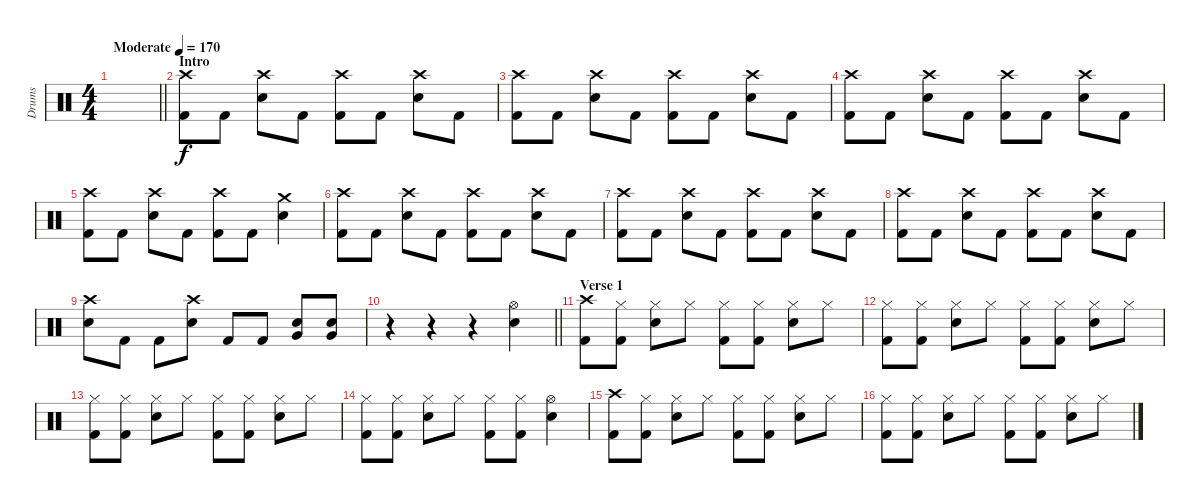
\track ("Drums" "Drums") {instrument percussion}
\staff {score}
\articulation defaults
\ts (4 4)
\tempo (170 "Moderate")
\clef neutral
\barLineRight lightlight
\ks c
|
\section ("" "Intro")
("Crash high (hit)" "Kick (hit) 2").8 "Kick (hit) 2".8 ("Crash high (hit)" "Snare (hit) 2").8 "Kick (hit) 2".8 ("Crash high (hit)" "Kick (hit) 2").8 "Kick (hit) 2".8 ("Crash high (hit)" "Snare (hit) 2").8 "Kick (hit) 2".8 |
("Crash high (hit)" "Kick (hit) 2").8 "Kick (hit) 2".8 ("Crash high (hit)" "Snare (hit) 2").8 "Kick (hit) 2".8 ("Crash high (hit)" "Kick (hit) 2").8 "Kick (hit) 2".8 ("Crash high (hit)" "Snare (hit) 2").8 "Kick (hit) 2".8 |
("Crash high (hit)" "Kick (hit) 2").8 "Kick (hit) 2".8 ("Crash high (hit)" "Snare (hit) 2").8 "Kick (hit) 2".8 ("Crash high (hit)" "Kick (hit) 2").8 "Kick (hit) 2".8 ("Crash high (hit)" "Snare (hit) 2").8 "Kick (hit) 2".8 |
("Crash high (hit)" "Kick (hit) 2").8 "Kick (hit) 2".8 ("Crash high (hit)" "Snare (hit) 2").8 "Kick (hit) 2".8 ("Crash high (hit)" "Kick (hit) 2").8 "Kick (hit) 2".8 ("Crash medium (hit)" "Snare (hit) 2").4 |
("Crash high (hit)" "Kick (hit) 2").8 "Kick (hit) 2".8 ("Crash high (hit)" "Snare (hit) 2").8 "Kick (hit) 2".8 ("Crash high (hit)" "Kick (hit) 2").8 "Kick (hit) 2".8 ("Crash high (hit)" "Snare (hit) 2").8 "Kick (hit) 2".8 |
("Crash high (hit)" "Kick (hit) 2").8 "Kick (hit) 2".8 ("Crash high (hit)" "Snare (hit) 2").8 "Kick (hit) 2".8 ("Crash high (hit)" "Kick (hit) 2").8 "Kick (hit) 2".8 ("Crash high (hit)" "Snare (hit) 2").8 "Kick (hit) 2".8 |
("Crash high (hit)" "Kick (hit) 2").8 "Kick (hit) 2".8 ("Crash high (hit)" "Snare (hit) 2").8 "Kick (hit) 2".8 ("Crash high (hit)" "Kick (hit) 2").8 "Kick (hit) 2".8 ("Crash high (hit)" "Snare (hit) 2").8 "Kick (hit) 2".8 |
("Crash high (hit)" "Snare (hit) 2").8 "Kick (hit) 2".8 "Kick (hit) 2".8 ("Crash high (hit)" "Snare (hit) 2").8 "Kick (hit) 2".8 "Kick (hit) 2".8 ("Snare (hit) 2" "Very Low Tom (hit)").8 ("Snare (hit) 2" "Very Low Tom (hit)").8 |
\barLineRight lightlight
r.4 r.4 r.4 ("Hi-Hat (open)" "Snare (hit) 2").4 |
\section ("" "Verse 1")
("Crash high (hit)" "Kick (hit) 2").8 ("Hi-Hat (closed)" "Kick (hit) 2").8 ("Hi-Hat (closed)" "Snare (hit) 2").8 "Hi-Hat (closed)".8 ("Hi-Hat (closed)" "Kick (hit) 2").8 ("Hi-Hat (closed)" "Kick (hit) 2").8 ("Hi-Hat (closed)" "Snare (hit) 2").8 "Hi-Hat (closed)".8 |
("Hi-Hat (closed)" "Kick (hit) 2").8 ("Hi-Hat (closed)" "Kick (hit) 2").8 ("Hi-Hat (closed)" "Snare (hit) 2").8 "Hi-Hat (closed)".8 ("Hi-Hat (closed)" "Kick (hit) 2").8 ("Hi-Hat (closed)" "Kick (hit) 2").8 ("Hi-Hat (closed)" "Snare (hit) 2").8 "Hi-Hat (closed)".8 |
("Hi-Hat (closed)" "Kick (hit) 2").8 ("Hi-Hat (closed)" "Kick (hit) 2").8 ("Hi-Hat (closed)" "Snare (hit) 2").8 "Hi-Hat (closed)".8 ("Hi-Hat (closed)" "Kick (hit) 2").8 ("Hi-Hat (closed)" "Kick (hit) 2").8 ("Hi-Hat (closed)" "Snare (hit) 2").8 "Hi-Hat (closed)".8 |
("Hi-Hat (closed)" "Kick (hit) 2").8 ("Hi-Hat (closed)" "Kick (hit) 2").8 ("Hi-Hat (closed)" "Snare (hit) 2").8 "Hi-Hat (closed)".8 ("Hi-Hat (closed)" "Kick (hit) 2").8 ("Hi-Hat (closed)" "Kick (hit) 2").8 ("Hi-Hat (open)" "Snare (hit) 2").4 |
("Crash high (hit)" "Kick (hit) 2").8 ("Hi-Hat (closed)" "Kick (hit) 2").8 ("Hi-Hat (closed)" "Snare (hit) 2").8 "Hi-Hat (closed)".8 ("Hi-Hat (closed)" "Kick (hit) 2").8 ("Hi-Hat (closed)" "Kick (hit) 2").8 ("Hi-Hat (closed)" "Snare (hit) 2").8 "Hi-Hat (closed)".8 |
("Hi-Hat (closed)" "Kick (hit) 2").8 ("Hi-Hat (closed)" "Kick (hit) 2").8 ("Hi-Hat (closed)" "Snare (hit) 2").8 "Hi-Hat (closed)".8 ("Hi-Hat (closed)" "Kick (hit) 2").8 ("Hi-Hat (closed)" "Kick (hit) 2").8 ("Hi-Hat (closed)" "Snare (hit) 2").8 "Hi-Hat (closed)".8
